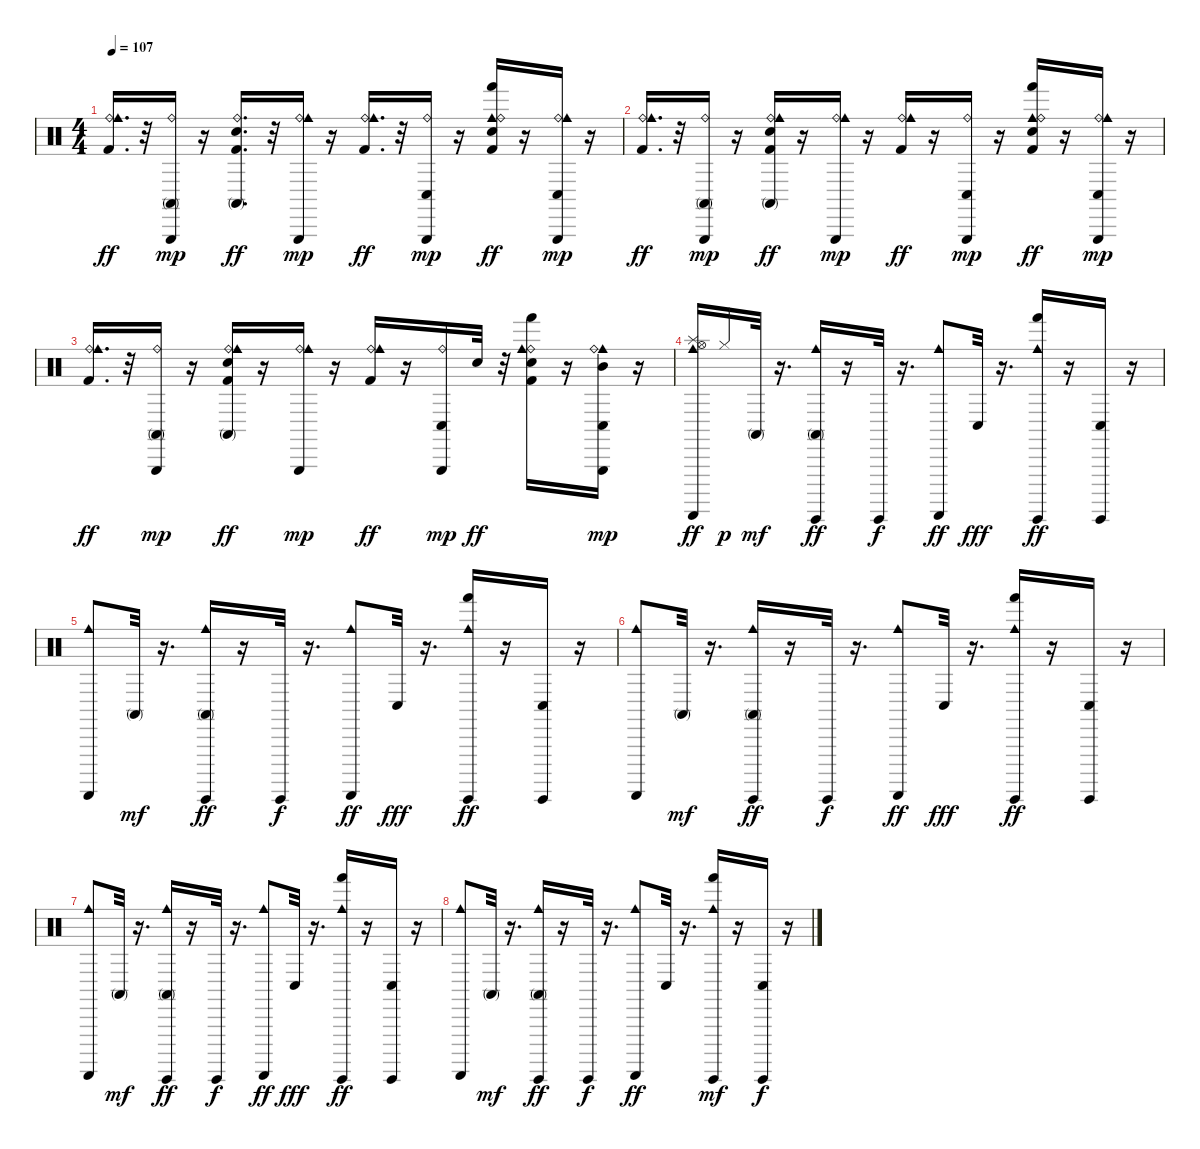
\track "" {instrument percussion}
\staff {score}
\articulation defaults
\ts (4 4)
\tempo 107
\clef neutral
\ks c
("Kick (hit) 2" "Ride (bell)" "Cowbell medium (hit)").16{d dy ff} r.32 ("Ride (bell)" "Conga high (mute)" "Triangle (hit)").16{dy mp} r.16 ("Kick (hit) 2" "Electric Snare (hit)" "Ride (bell)" "Conga high (mute)").16{d dy ff} r.32 ("Ride (bell)" "Cowbell medium (hit)" "Triangle (hit)").16{dy mp} r.16 ("Kick (hit) 2" "Ride (bell)" "Cowbell medium (hit)").16{d dy ff} r.32 ("Ride (bell)" "Conga low (hit)" "Triangle (hit)").16{dy mp} r.16 ("Kick (hit) 2" "Electric Snare (hit)" "Cowbell medium (hit)" "Ride (bell)" "Hand (hit)").16{dy ff} r.16 ("Ride (bell)" "Cowbell medium (hit)" "Conga low (hit)" "Triangle (hit)").16{dy mp} r.16 |
("Kick (hit) 2" "Ride (bell)" "Cowbell medium (hit)").16{d dy ff} r.32 ("Ride (bell)" "Conga high (mute)" "Triangle (hit)").16{dy mp} r.16 ("Kick (hit) 2" "Electric Snare (hit)" "Ride (bell)" "Cowbell medium (hit)" "Conga high (mute)").16{dy ff} r.16 ("Ride (bell)" "Cowbell medium (hit)" "Triangle (hit)").16{dy mp} r.16 ("Kick (hit) 2" "Ride (bell)" "Cowbell medium (hit)").16{dy ff} r.16 ("Ride (bell)" "Conga low (hit)" "Triangle (hit)").16{dy mp} r.16 ("Kick (hit) 2" "Electric Snare (hit)" "Cowbell medium (hit)" "Hand (hit)" "Ride (bell)").16{dy ff} r.16 ("Ride (bell)" "Cowbell medium (hit)" "Conga low (hit)" "Triangle (hit)").16{dy mp} r.16 |
("Kick (hit) 2" "Ride (bell)" "Cowbell medium (hit)").16{d dy ff} r.32 ("Ride (bell)" "Conga high (mute)" "Triangle (hit)").16{dy mp} r.16 ("Kick (hit) 2" "Electric Snare (hit)" "Ride (bell)" "Cowbell medium (hit)" "Conga high (mute)").16{dy ff} r.16 ("Ride (bell)" "Cowbell medium (hit)" "Triangle (hit)").16{dy mp} r.16 ("Kick (hit) 2" "Ride (bell)" "Cowbell medium (hit)").16{dy ff} r.16 ("Ride (bell)" "Conga low (hit)" "Triangle (hit)").16{dy mp} "Electric Snare (hit)".32{dy ff} r.32 ("Electric Snare (hit)" "Kick (hit) 2" "Ride (bell)" "Cowbell medium (hit)" "Hand (hit)").16 r.16 ("Mid Tom (hit)" "Cowbell medium (hit)" "Ride (bell)" "Conga low (hit)" "Triangle (hit)").16{dy mp} r.16 |
("Hi-Hat (open)" "Splash (hit)" "Cowbell medium (hit)" "Guiro (scrap-return)").16{dy ff} "Hi-Hat (closed)".16{dy p} "Conga high (mute)".32{dy mf} r.16{d} ("Cowbell medium (hit)" "Conga high (mute)" "Guiro (hit)").16{dy ff} r.16 "Guiro (hit)".32{dy f} r.16{d} ("Cowbell medium (hit)" "Guiro (scrap-return)").8{dy ff} "Conga low (hit)".32{dy fff} r.16{d} ("Cowbell medium (hit)" "Hand (hit)" "Guiro (hit)").16{dy ff} r.16 ("Conga low (hit)" "Guiro (hit)").16 r.16 |
("Cowbell medium (hit)" "Guiro (scrap-return)").8 "Conga high (mute)".32{dy mf} r.16{d} ("Cowbell medium (hit)" "Conga high (mute)" "Guiro (hit)").16{dy ff} r.16 "Guiro (hit)".32{dy f} r.16{d} ("Cowbell medium (hit)" "Guiro (scrap-return)").8{dy ff} "Conga low (hit)".32{dy fff} r.16{d} ("Cowbell medium (hit)" "Hand (hit)" "Guiro (hit)").16{dy ff} r.16 ("Conga low (hit)" "Guiro (hit)").16 r.16 |
("Cowbell medium (hit)" "Guiro (scrap-return)").8 "Conga high (mute)".32{dy mf} r.16{d} ("Cowbell medium (hit)" "Conga high (mute)" "Guiro (hit)").16{dy ff} r.16 "Guiro (hit)".32{dy f} r.16{d} ("Cowbell medium (hit)" "Guiro (scrap-return)").8{dy ff} "Conga low (hit)".32{dy fff} r.16{d} ("Cowbell medium (hit)" "Hand (hit)" "Guiro (hit)").16{dy ff} r.16 ("Conga low (hit)" "Guiro (hit)").16 r.16 |
("Cowbell medium (hit)" "Guiro (scrap-return)").8 "Conga high (mute)".32{dy mf} r.16{d} ("Cowbell medium (hit)" "Conga high (mute)" "Guiro (hit)").16{dy ff} r.16 "Guiro (hit)".32{dy f} r.16{d} ("Cowbell medium (hit)" "Guiro (scrap-return)").8{dy ff} "Conga low (hit)".32{dy fff} r.16{d} ("Cowbell medium (hit)" "Hand (hit)" "Guiro (hit)").16{dy ff} r.16 ("Conga low (hit)" "Guiro (hit)").16 r.16 |
("Cowbell medium (hit)" "Guiro (scrap-return)").8 "Conga high (mute)".32{dy mf} r.16{d} ("Cowbell medium (hit)" "Conga high (mute)" "Guiro (hit)").16{dy ff} r.16 "Guiro (hit)".32{dy f} r.16{d} ("Cowbell medium (hit)" "Guiro (scrap-return)").8{dy ff} "Conga low (hit)".32 r.16{d} ("Cowbell medium (hit)" "Hand (hit)" "Guiro (hit)").16{dy mf} r.16 ("Conga low (hit)" "Guiro (hit)").16{dy f} r.16
